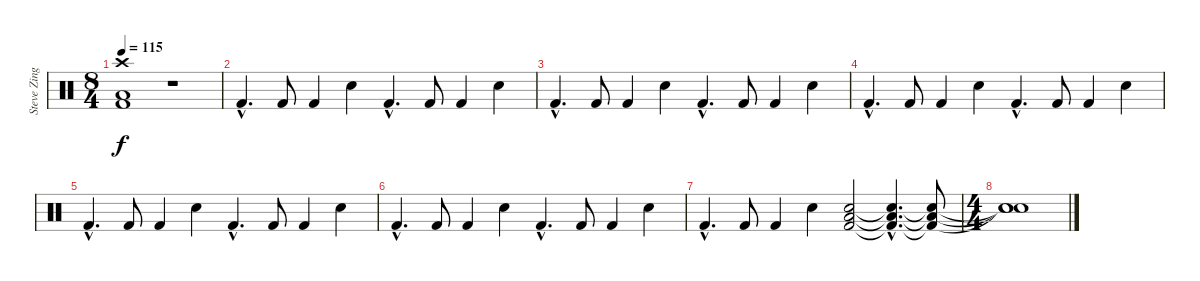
\track ("Steve Zing- Drums" "Steve Zing") {instrument percussion}
\staff {score}
\articulation defaults
\ts (8 4)
\tempo 115
\clef neutral
\ks c
("Crash high (hit)" "Kick (hit) 2" "Low Floor Tom (hit)").1{dy f} r.1 |
"Kick (hit) 2"{hac}.4{d} "Kick (hit) 2".8 "Kick (hit) 2".4 "Snare (hit) 2".4 "Kick (hit) 2"{hac}.4{d} "Kick (hit) 2".8 "Kick (hit) 2".4 "Snare (hit) 2".4 |
"Kick (hit) 2"{hac}.4{d} "Kick (hit) 2".8 "Kick (hit) 2".4 "Snare (hit) 2".4 "Kick (hit) 2"{hac}.4{d} "Kick (hit) 2".8 "Kick (hit) 2".4 "Snare (hit) 2".4 |
"Kick (hit) 2"{hac}.4{d} "Kick (hit) 2".8 "Kick (hit) 2".4 "Snare (hit) 2".4 "Kick (hit) 2"{hac}.4{d} "Kick (hit) 2".8 "Kick (hit) 2".4 "Snare (hit) 2".4 |
"Kick (hit) 2"{hac}.4{d} "Kick (hit) 2".8 "Kick (hit) 2".4 "Snare (hit) 2".4 "Kick (hit) 2"{hac}.4{d} "Kick (hit) 2".8 "Kick (hit) 2".4 "Snare (hit) 2".4 |
"Kick (hit) 2"{hac}.4{d} "Kick (hit) 2".8 "Kick (hit) 2".4 "Snare (hit) 2".4 "Kick (hit) 2"{hac}.4{d} "Kick (hit) 2".8 "Kick (hit) 2".4 "Snare (hit) 2".4 |
"Kick (hit) 2"{hac}.4{d} "Kick (hit) 2".8 "Kick (hit) 2".4 "Snare (hit) 2".4 ("Low Floor Tom (hit)" "Snare (hit) 2" "Kick (hit) 2").2 ("Low Floor Tom (hit)"{hac t} "Snare (hit) 2"{hac t} "Kick (hit) 2"{hac t}).4{d} ("Low Floor Tom (hit)"{t} "Snare (hit) 2"{t} "Kick (hit) 2"{t}).8 |
\ts (4 4)
("Snare (hit)"{t} "Snare (hit)"{t} "Snare (hit)"{t}).1
